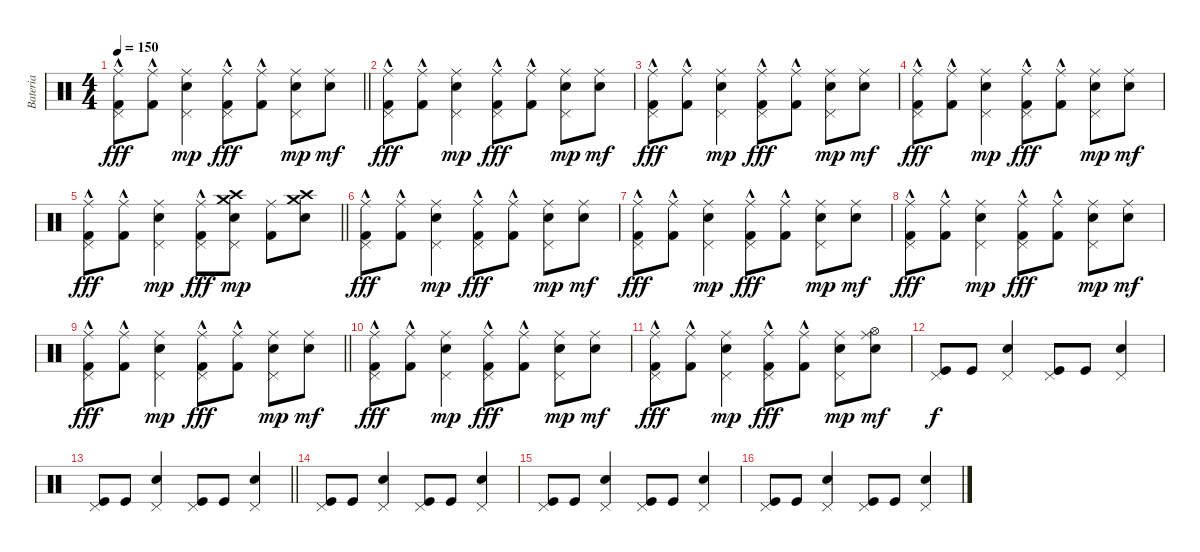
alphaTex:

\track ("Bateria" "Bateria") {instrument percussion}
\staff {score}
\articulation defaults
\ts (4 4)
\tempo 150
\clef neutral
\barLineRight lightlight
\ks c
("Ride (middle)" "Pedal Hi-Hat (hit)" "Kick (hit) 2"{hac}).8{dy fff} ("Ride (middle)" "Kick (hit) 2"{hac}).8 ("Ride (middle)" "Pedal Hi-Hat (hit)" "Electric Snare (hit)").4{dy mp} ("Ride (middle)" "Pedal Hi-Hat (hit)" "Kick (hit) 2"{hac}).8{dy fff} ("Ride (middle)" "Kick (hit) 2"{hac}).8 ("Ride (middle)" "Pedal Hi-Hat (hit)" "Electric Snare (hit)").8{dy mp} ("Ride (middle)" "Electric Snare (hit)").8{dy mf} |
("Ride (middle)" "Pedal Hi-Hat (hit)" "Kick (hit) 2"{hac}).8{dy fff} ("Ride (middle)" "Kick (hit) 2"{hac}).8 ("Ride (middle)" "Pedal Hi-Hat (hit)" "Electric Snare (hit)").4{dy mp} ("Ride (middle)" "Pedal Hi-Hat (hit)" "Kick (hit) 2"{hac}).8{dy fff} ("Ride (middle)" "Kick (hit) 2"{hac}).8 ("Ride (middle)" "Pedal Hi-Hat (hit)" "Electric Snare (hit)").8{dy mp} ("Ride (middle)" "Electric Snare (hit)").8{dy mf} |
("Ride (middle)" "Pedal Hi-Hat (hit)" "Kick (hit) 2"{hac}).8{dy fff} ("Ride (middle)" "Kick (hit) 2"{hac}).8 ("Ride (middle)" "Pedal Hi-Hat (hit)" "Electric Snare (hit)").4{dy mp} ("Ride (middle)" "Pedal Hi-Hat (hit)" "Kick (hit) 2"{hac}).8{dy fff} ("Ride (middle)" "Kick (hit) 2"{hac}).8 ("Ride (middle)" "Pedal Hi-Hat (hit)" "Electric Snare (hit)").8{dy mp} ("Ride (middle)" "Electric Snare (hit)").8{dy mf} |
("Ride (middle)" "Pedal Hi-Hat (hit)" "Kick (hit) 2"{hac}).8{dy fff} ("Ride (middle)" "Kick (hit) 2"{hac}).8 ("Ride (middle)" "Pedal Hi-Hat (hit)" "Electric Snare (hit)").4{dy mp} ("Ride (middle)" "Pedal Hi-Hat (hit)" "Kick (hit) 2"{hac}).8{dy fff} ("Ride (middle)" "Kick (hit) 2"{hac}).8 ("Ride (middle)" "Pedal Hi-Hat (hit)" "Electric Snare (hit)").8{dy mp} ("Ride (middle)" "Electric Snare (hit)").8{dy mf} |
\barLineRight lightlight
("Ride (middle)" "Pedal Hi-Hat (hit)" "Kick (hit) 2"{hac}).8{dy fff} ("Ride (middle)" "Kick (hit) 2"{hac}).8 ("Ride (middle)" "Pedal Hi-Hat (hit)" "Electric Snare (hit)").4{dy mp} ("Ride (middle)" "Pedal Hi-Hat (hit)" "Kick (hit) 2"{hac}).8{dy fff} ("Crash high (hit)" "Pedal Hi-Hat (hit)" "Electric Snare (hit)" "Crash medium (hit)").8{dy mp} ("Ride (middle)" "Kick (hit) 2").8 ("Crash medium (hit)" "Electric Snare (hit)" "Crash high (hit)").8 |
("Ride (middle)" "Pedal Hi-Hat (hit)" "Kick (hit) 2"{hac}).8{dy fff} ("Ride (middle)" "Kick (hit) 2"{hac}).8 ("Ride (middle)" "Pedal Hi-Hat (hit)" "Electric Snare (hit)").4{dy mp} ("Ride (middle)" "Pedal Hi-Hat (hit)" "Kick (hit) 2"{hac}).8{dy fff} ("Ride (middle)" "Kick (hit) 2"{hac}).8 ("Ride (middle)" "Pedal Hi-Hat (hit)" "Electric Snare (hit)").8{dy mp} ("Ride (middle)" "Electric Snare (hit)").8{dy mf} |
("Ride (middle)" "Pedal Hi-Hat (hit)" "Kick (hit) 2"{hac}).8{dy fff} ("Ride (middle)" "Kick (hit) 2"{hac}).8 ("Ride (middle)" "Pedal Hi-Hat (hit)" "Electric Snare (hit)").4{dy mp} ("Ride (middle)" "Pedal Hi-Hat (hit)" "Kick (hit) 2"{hac}).8{dy fff} ("Ride (middle)" "Kick (hit) 2"{hac}).8 ("Ride (middle)" "Pedal Hi-Hat (hit)" "Electric Snare (hit)").8{dy mp} ("Ride (middle)" "Electric Snare (hit)").8{dy mf} |
("Ride (middle)" "Pedal Hi-Hat (hit)" "Kick (hit) 2"{hac}).8{dy fff} ("Ride (middle)" "Kick (hit) 2"{hac}).8 ("Ride (middle)" "Pedal Hi-Hat (hit)" "Electric Snare (hit)").4{dy mp} ("Ride (middle)" "Pedal Hi-Hat (hit)" "Kick (hit) 2"{hac}).8{dy fff} ("Ride (middle)" "Kick (hit) 2"{hac}).8 ("Ride (middle)" "Pedal Hi-Hat (hit)" "Electric Snare (hit)").8{dy mp} ("Ride (middle)" "Electric Snare (hit)").8{dy mf} |
\barLineRight lightlight
("Ride (middle)" "Pedal Hi-Hat (hit)" "Kick (hit) 2"{hac}).8{dy fff} ("Ride (middle)" "Kick (hit) 2"{hac}).8 ("Ride (middle)" "Pedal Hi-Hat (hit)" "Electric Snare (hit)").4{dy mp} ("Ride (middle)" "Pedal Hi-Hat (hit)" "Kick (hit) 2"{hac}).8{dy fff} ("Ride (middle)" "Kick (hit) 2"{hac}).8 ("Ride (middle)" "Pedal Hi-Hat (hit)" "Electric Snare (hit)").8{dy mp} ("Ride (middle)" "Electric Snare (hit)").8{dy mf} |
("Ride (middle)" "Pedal Hi-Hat (hit)" "Kick (hit) 2"{hac}).8{dy fff} ("Ride (middle)" "Kick (hit) 2"{hac}).8 ("Ride (middle)" "Pedal Hi-Hat (hit)" "Electric Snare (hit)").4{dy mp} ("Ride (middle)" "Pedal Hi-Hat (hit)" "Kick (hit) 2"{hac}).8{dy fff} ("Ride (middle)" "Kick (hit) 2"{hac}).8 ("Ride (middle)" "Pedal Hi-Hat (hit)" "Electric Snare (hit)").8{dy mp} ("Ride (middle)" "Electric Snare (hit)").8{dy mf} |
("Ride (middle)" "Pedal Hi-Hat (hit)" "Kick (hit) 2"{hac}).8{dy fff} ("Ride (middle)" "Kick (hit) 2"{hac}).8 ("Ride (middle)" "Pedal Hi-Hat (hit)" "Electric Snare (hit)").4{dy mp} ("Ride (middle)" "Pedal Hi-Hat (hit)" "Kick (hit) 2"{hac}).8{dy fff} ("Ride (middle)" "Kick (hit) 2"{hac}).8 ("Ride (middle)" "Pedal Hi-Hat (hit)" "Electric Snare (hit)").8{dy mp} ("Ride (middle)" "Hi-Hat (open)" "Electric Snare (hit)").8{dy mf} |
("Pedal Hi-Hat (hit)" "Kick (hit)").8{dy f} "Kick (hit)".8 ("Pedal Hi-Hat (hit)" "Snare (hit) 2").4 ("Pedal Hi-Hat (hit)" "Kick (hit)").8 "Kick (hit)".8 ("Pedal Hi-Hat (hit)" "Snare (hit) 2").4 |
\barLineRight lightlight
("Pedal Hi-Hat (hit)" "Kick (hit)").8 "Kick (hit)".8 ("Pedal Hi-Hat (hit)" "Snare (hit) 2").4 ("Pedal Hi-Hat (hit)" "Kick (hit)").8 "Kick (hit)".8 ("Pedal Hi-Hat (hit)" "Snare (hit) 2").4 |
("Pedal Hi-Hat (hit)" "Kick (hit)").8 "Kick (hit)".8 ("Pedal Hi-Hat (hit)" "Snare (hit) 2").4 ("Pedal Hi-Hat (hit)" "Kick (hit)").8 "Kick (hit)".8 ("Pedal Hi-Hat (hit)" "Snare (hit) 2").4 |
("Pedal Hi-Hat (hit)" "Kick (hit)").8 "Kick (hit)".8 ("Pedal Hi-Hat (hit)" "Snare (hit) 2").4 ("Pedal Hi-Hat (hit)" "Kick (hit)").8 "Kick (hit)".8 ("Pedal Hi-Hat (hit)" "Snare (hit) 2").4 |
("Pedal Hi-Hat (hit)" "Kick (hit)").8 "Kick (hit)".8 ("Pedal Hi-Hat (hit)" "Snare (hit) 2").4 ("Pedal Hi-Hat (hit)" "Kick (hit)").8 "Kick (hit)".8 ("Pedal Hi-Hat (hit)" "Snare (hit) 2").4
